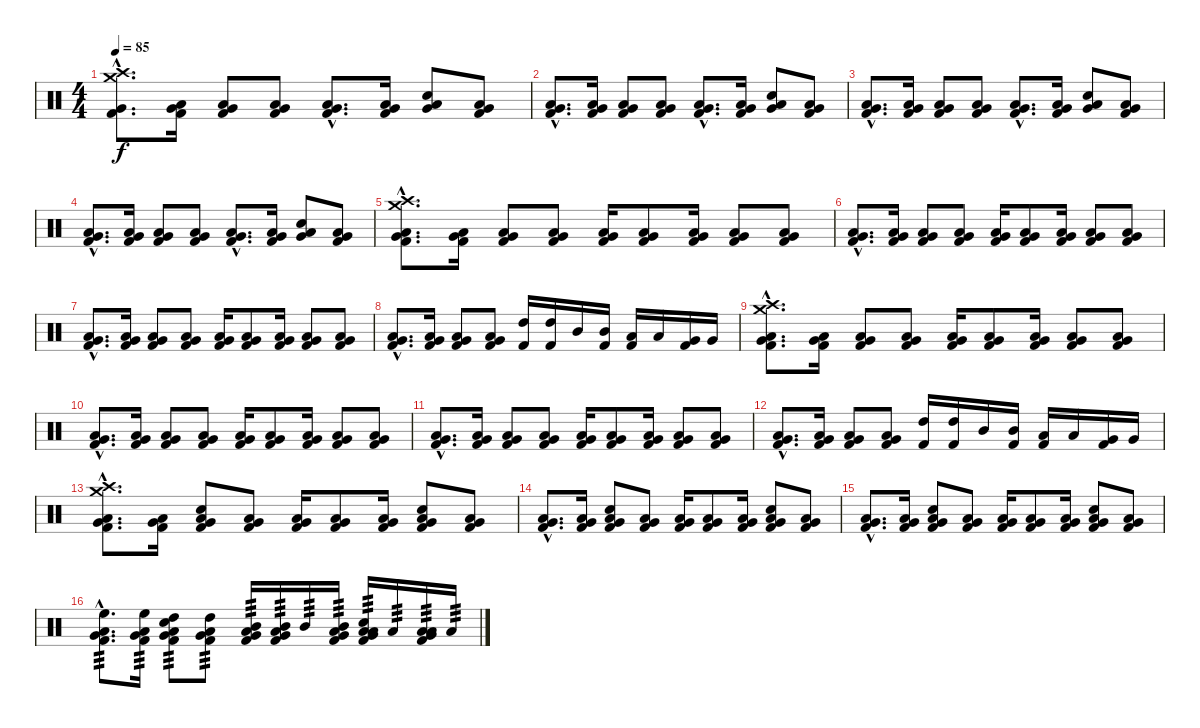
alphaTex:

\track "" {instrument percussion}
\staff {score}
\articulation defaults
\ts (4 4)
\tempo 85
\clef neutral
\ks c
("Crash high (hit)"{hac} "Crash medium (hit)"{hac} "Very Low Tom (hit)"{hac} "Kick (hit) 2"{hac}).8{d dy f} ("Low Tom (hit)" "Very Low Tom (hit)" "Kick (hit) 2").16 ("Low Tom (hit)" "Very Low Tom (hit)" "Kick (hit) 2").8 ("Low Tom (hit)" "Very Low Tom (hit)" "Kick (hit) 2").8 ("Low Tom (hit)"{hac} "Very Low Tom (hit)"{hac} "Kick (hit) 2"{hac}).8{d} ("Low Tom (hit)" "Very Low Tom (hit)" "Kick (hit) 2").16 ("Low Tom (hit)" "Very Low Tom (hit)" "Snare (hit) 2").8 ("Low Tom (hit)" "Very Low Tom (hit)" "Kick (hit) 2").8 |
("Low Tom (hit)"{hac} "Very Low Tom (hit)"{hac} "Kick (hit) 2"{hac}).8{d} ("Low Tom (hit)" "Very Low Tom (hit)" "Kick (hit) 2").16 ("Low Tom (hit)" "Very Low Tom (hit)" "Kick (hit) 2").8 ("Low Tom (hit)" "Very Low Tom (hit)" "Kick (hit) 2").8 ("Low Tom (hit)"{hac} "Very Low Tom (hit)"{hac} "Kick (hit) 2"{hac}).8{d} ("Low Tom (hit)" "Very Low Tom (hit)" "Kick (hit) 2").16 ("Low Tom (hit)" "Very Low Tom (hit)" "Snare (hit) 2").8 ("Low Tom (hit)" "Very Low Tom (hit)" "Kick (hit) 2").8 |
("Low Tom (hit)"{hac} "Very Low Tom (hit)"{hac} "Kick (hit) 2"{hac}).8{d} ("Low Tom (hit)" "Very Low Tom (hit)" "Kick (hit) 2").16 ("Low Tom (hit)" "Very Low Tom (hit)" "Kick (hit) 2").8 ("Low Tom (hit)" "Very Low Tom (hit)" "Kick (hit) 2").8 ("Low Tom (hit)"{hac} "Very Low Tom (hit)"{hac} "Kick (hit) 2"{hac}).8{d} ("Low Tom (hit)" "Very Low Tom (hit)" "Kick (hit) 2").16 ("Low Tom (hit)" "Very Low Tom (hit)" "Snare (hit) 2").8 ("Low Tom (hit)" "Very Low Tom (hit)" "Kick (hit) 2").8 |
("Low Tom (hit)"{hac} "Very Low Tom (hit)"{hac} "Kick (hit) 2"{hac}).8{d} ("Low Tom (hit)" "Very Low Tom (hit)" "Kick (hit) 2").16 ("Low Tom (hit)" "Very Low Tom (hit)" "Kick (hit) 2").8 ("Low Tom (hit)" "Very Low Tom (hit)" "Kick (hit) 2").8 ("Low Tom (hit)"{hac} "Very Low Tom (hit)"{hac} "Kick (hit) 2"{hac}).8{d} ("Low Tom (hit)" "Very Low Tom (hit)" "Kick (hit) 2").16 ("Low Tom (hit)" "Very Low Tom (hit)" "Snare (hit) 2").8 ("Low Tom (hit)" "Very Low Tom (hit)" "Kick (hit) 2").8 |
("Crash high (hit)"{hac} "Crash medium (hit)"{hac} "Low Tom (hit)"{hac} "Very Low Tom (hit)"{hac} "Kick (hit) 2"{hac}).8{d} ("Low Tom (hit)" "Very Low Tom (hit)" "Kick (hit) 2").16 ("Low Tom (hit)" "Very Low Tom (hit)" "Kick (hit) 2").8 ("Low Tom (hit)" "Very Low Tom (hit)" "Kick (hit) 2").8 ("Low Tom (hit)" "Very Low Tom (hit)" "Kick (hit) 2").16 ("Low Tom (hit)" "Very Low Tom (hit)" "Kick (hit) 2").8 ("Low Tom (hit)" "Very Low Tom (hit)" "Kick (hit) 2").16 ("Low Tom (hit)" "Very Low Tom (hit)" "Kick (hit) 2").8 ("Low Tom (hit)" "Very Low Tom (hit)" "Kick (hit) 2").8 |
("Low Tom (hit)"{hac} "Very Low Tom (hit)"{hac} "Kick (hit) 2"{hac}).8{d} ("Low Tom (hit)" "Very Low Tom (hit)" "Kick (hit) 2").16 ("Low Tom (hit)" "Very Low Tom (hit)" "Kick (hit) 2").8 ("Low Tom (hit)" "Very Low Tom (hit)" "Kick (hit) 2").8 ("Low Tom (hit)" "Very Low Tom (hit)" "Kick (hit) 2").16 ("Low Tom (hit)" "Very Low Tom (hit)" "Kick (hit) 2").8 ("Low Tom (hit)" "Very Low Tom (hit)" "Kick (hit) 2").16 ("Low Tom (hit)" "Very Low Tom (hit)" "Kick (hit) 2").8 ("Low Tom (hit)" "Very Low Tom (hit)" "Kick (hit) 2").8 |
("Low Tom (hit)"{hac} "Very Low Tom (hit)"{hac} "Kick (hit) 2"{hac}).8{d} ("Low Tom (hit)" "Very Low Tom (hit)" "Kick (hit) 2").16 ("Low Tom (hit)" "Very Low Tom (hit)" "Kick (hit) 2").8 ("Low Tom (hit)" "Very Low Tom (hit)" "Kick (hit) 2").8 ("Low Tom (hit)" "Very Low Tom (hit)" "Kick (hit) 2").16 ("Low Tom (hit)" "Very Low Tom (hit)" "Kick (hit) 2").8 ("Low Tom (hit)" "Very Low Tom (hit)" "Kick (hit) 2").16 ("Low Tom (hit)" "Very Low Tom (hit)" "Kick (hit) 2").8 ("Low Tom (hit)" "Very Low Tom (hit)" "Kick (hit) 2").8 |
("Low Tom (hit)"{hac} "Very Low Tom (hit)"{hac} "Kick (hit) 2"{hac}).8{d} ("Low Tom (hit)" "Very Low Tom (hit)" "Kick (hit) 2").16 ("Low Tom (hit)" "Very Low Tom (hit)" "Kick (hit) 2").8 ("Low Tom (hit)" "Very Low Tom (hit)" "Kick (hit) 2").8 ("High Tom (hit)" "Kick (hit) 2").16 ("High Tom (hit)" "Kick (hit) 2").16 "Mid Tom (hit)".16 ("Mid Tom (hit)" "Kick (hit) 2").16 ("Low Tom (hit)" "Kick (hit) 2").16 "Low Tom (hit)".16 ("Very Low Tom (hit)" "Kick (hit) 2").16 "Very Low Tom (hit)".16 |
("Crash high (hit)"{hac} "Crash medium (hit)"{hac} "Low Tom (hit)"{hac} "Very Low Tom (hit)"{hac} "Kick (hit) 2"{hac}).8{d} ("Low Tom (hit)" "Very Low Tom (hit)" "Kick (hit) 2").16 ("Low Tom (hit)" "Very Low Tom (hit)" "Kick (hit) 2").8 ("Low Tom (hit)" "Very Low Tom (hit)" "Kick (hit) 2").8 ("Low Tom (hit)" "Very Low Tom (hit)" "Kick (hit) 2").16 ("Low Tom (hit)" "Very Low Tom (hit)" "Kick (hit) 2").8 ("Low Tom (hit)" "Very Low Tom (hit)" "Kick (hit) 2").16 ("Low Tom (hit)" "Very Low Tom (hit)" "Kick (hit) 2").8 ("Low Tom (hit)" "Very Low Tom (hit)" "Kick (hit) 2").8 |
("Low Tom (hit)"{hac} "Very Low Tom (hit)"{hac} "Kick (hit) 2"{hac}).8{d} ("Low Tom (hit)" "Very Low Tom (hit)" "Kick (hit) 2").16 ("Low Tom (hit)" "Very Low Tom (hit)" "Kick (hit) 2").8 ("Low Tom (hit)" "Very Low Tom (hit)" "Kick (hit) 2").8 ("Low Tom (hit)" "Very Low Tom (hit)" "Kick (hit) 2").16 ("Low Tom (hit)" "Very Low Tom (hit)" "Kick (hit) 2").8 ("Low Tom (hit)" "Very Low Tom (hit)" "Kick (hit) 2").16 ("Low Tom (hit)" "Very Low Tom (hit)" "Kick (hit) 2").8 ("Low Tom (hit)" "Very Low Tom (hit)" "Kick (hit) 2").8 |
("Low Tom (hit)"{hac} "Very Low Tom (hit)"{hac} "Kick (hit) 2"{hac}).8{d} ("Low Tom (hit)" "Very Low Tom (hit)" "Kick (hit) 2").16 ("Low Tom (hit)" "Very Low Tom (hit)" "Kick (hit) 2").8 ("Low Tom (hit)" "Very Low Tom (hit)" "Kick (hit) 2").8 ("Low Tom (hit)" "Very Low Tom (hit)" "Kick (hit) 2").16 ("Low Tom (hit)" "Very Low Tom (hit)" "Kick (hit) 2").8 ("Low Tom (hit)" "Very Low Tom (hit)" "Kick (hit) 2").16 ("Low Tom (hit)" "Very Low Tom (hit)" "Kick (hit) 2").8 ("Low Tom (hit)" "Very Low Tom (hit)" "Kick (hit) 2").8 |
("Low Tom (hit)"{hac} "Very Low Tom (hit)"{hac} "Kick (hit) 2"{hac}).8{d} ("Low Tom (hit)" "Very Low Tom (hit)" "Kick (hit) 2").16 ("Low Tom (hit)" "Very Low Tom (hit)" "Kick (hit) 2").8 ("Low Tom (hit)" "Very Low Tom (hit)" "Kick (hit) 2").8 ("High Tom (hit)" "Kick (hit) 2").16 ("High Tom (hit)" "Kick (hit) 2").16 "Mid Tom (hit)".16 ("Mid Tom (hit)" "Kick (hit) 2").16 ("Low Tom (hit)" "Kick (hit) 2").16 "Low Tom (hit)".16 ("Very Low Tom (hit)" "Kick (hit) 2").16 "Very Low Tom (hit)".16 |
("Crash high (hit)"{hac} "Crash medium (hit)"{hac} "Low Tom (hit)"{hac} "Very Low Tom (hit)"{hac} "Kick (hit) 2"{hac}).8{d} ("Low Tom (hit)" "Very Low Tom (hit)" "Kick (hit) 2").16 ("Snare (hit) 2" "Low Tom (hit)" "Very Low Tom (hit)" "Kick (hit) 2").8 ("Low Tom (hit)" "Very Low Tom (hit)" "Kick (hit) 2").8 ("Low Tom (hit)" "Very Low Tom (hit)" "Kick (hit) 2").16 ("Low Tom (hit)" "Very Low Tom (hit)" "Kick (hit) 2").8 ("Low Tom (hit)" "Very Low Tom (hit)" "Kick (hit) 2").16 ("Snare (hit) 2" "Low Tom (hit)" "Very Low Tom (hit)" "Kick (hit) 2").8 ("Low Tom (hit)" "Very Low Tom (hit)" "Kick (hit) 2").8 |
("Low Tom (hit)"{hac} "Very Low Tom (hit)"{hac} "Kick (hit) 2"{hac}).8{d} ("Low Tom (hit)" "Very Low Tom (hit)" "Kick (hit) 2").16 ("Snare (hit) 2" "Low Tom (hit)" "Very Low Tom (hit)" "Kick (hit) 2").8 ("Low Tom (hit)" "Very Low Tom (hit)" "Kick (hit) 2").8 ("Low Tom (hit)" "Very Low Tom (hit)" "Kick (hit) 2").16 ("Low Tom (hit)" "Very Low Tom (hit)" "Kick (hit) 2").8 ("Low Tom (hit)" "Very Low Tom (hit)" "Kick (hit) 2").16 ("Snare (hit) 2" "Low Tom (hit)" "Very Low Tom (hit)" "Kick (hit) 2").8 ("Low Tom (hit)" "Very Low Tom (hit)" "Kick (hit) 2").8 |
("Low Tom (hit)"{hac} "Very Low Tom (hit)"{hac} "Kick (hit) 2"{hac}).8{d} ("Low Tom (hit)" "Very Low Tom (hit)" "Kick (hit) 2").16 ("Snare (hit) 2" "Low Tom (hit)" "Very Low Tom (hit)" "Kick (hit) 2").8 ("Low Tom (hit)" "Very Low Tom (hit)" "Kick (hit) 2").8 ("Low Tom (hit)" "Very Low Tom (hit)" "Kick (hit) 2").16 ("Low Tom (hit)" "Very Low Tom (hit)" "Kick (hit) 2").8 ("Low Tom (hit)" "Very Low Tom (hit)" "Kick (hit) 2").16 ("Snare (hit) 2" "Low Tom (hit)" "Very Low Tom (hit)" "Kick (hit) 2").8 ("Low Tom (hit)" "Very Low Tom (hit)" "Kick (hit) 2").8 |
("High Floor Tom (hit)"{hac} "Low Tom (hit)"{hac} "Very Low Tom (hit)"{hac} "Kick (hit) 2"{hac}).8{d tp 3} ("High Floor Tom (hit)" "Low Tom (hit)" "Very Low Tom (hit)" "Kick (hit) 2").16{tp 3} ("High Tom (hit)" "Snare (hit) 2" "Low Tom (hit)" "Very Low Tom (hit)" "Kick (hit) 2").8{tp 3} ("High Tom (hit)" "Low Tom (hit)" "Very Low Tom (hit)" "Kick (hit) 2").8{tp 3} ("Mid Tom (hit)" "Low Tom (hit)" "Very Low Tom (hit)" "Kick (hit) 2").16{tp 3} ("Mid Tom (hit)" "Low Tom (hit)" "Very Low Tom (hit)" "Kick (hit) 2").16{tp 3} "Mid Tom (hit)".16{tp 3} ("Mid Tom (hit)" "Low Tom (hit)" "Very Low Tom (hit)" "Kick (hit) 2").16{tp 3} ("Low Tom (hit)" "Snare (hit) 2" "Low Tom (hit)" "Very Low Tom (hit)" "Kick (hit) 2").16{tp 3} "Low Tom (hit)".16{tp 3} ("Low Tom (hit)" "Low Tom (hit)" "Very Low Tom (hit)" "Kick (hit) 2").16{tp 3} "Low Tom (hit)".16{tp 3}
